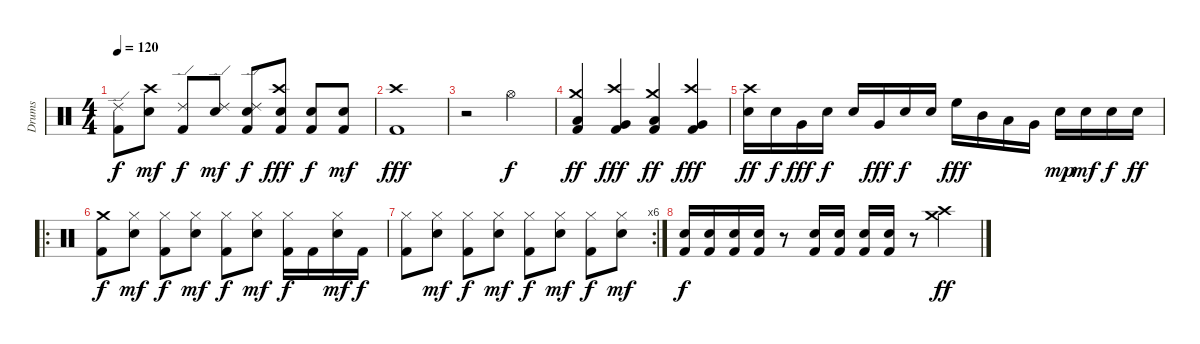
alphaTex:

\track ("Drums" "Drums") {instrument percussion}
\staff {score}
\articulation defaults
\ts (4 4)
\tempo 120
\clef neutral
\ks c
("Ride (edge) 2" "Kick (hit) 2").8{dy f} ("Crash high (hit)" "Snare (hit) 2").8{dy mf} ("Ride (edge) 2" "Kick (hit) 2").8{dy f} ("Ride (edge) 2" "Snare (hit) 2").8{dy mf} ("Ride (edge) 2" "Snare (hit) 2" "Kick (hit) 2").8{dy f} ("Crash high (hit)" "Snare (hit) 2" "Kick (hit) 2").8{dy fff} ("Snare (hit) 2" "Kick (hit) 2").8{dy f} ("Snare (hit) 2" "Kick (hit) 2").8{dy mf} |
("Crash high (hit)" "Kick (hit) 2").1{dy fff} |
r.2 "Hi-Hat (open)".2{dy f} |
("Crash medium (hit)" "Low Floor Tom (hit)" "Kick (hit) 2").4{dy ff balance 4} ("Crash high (hit)" "Very Low Tom (hit)" "Kick (hit) 2").4{dy fff balance 12} ("Crash medium (hit)" "Low Floor Tom (hit)" "Kick (hit) 2").4{dy ff balance 4} ("Crash high (hit)" "Very Low Tom (hit)" "Kick (hit) 2").4{dy fff balance 12} |
("Crash high (hit)" "Snare (hit) 2").16{dy ff balance 8} "Snare (hit) 2".16{dy f} "Very Low Tom (hit)".16{dy fff} "Snare (hit) 2".16{dy f} "Snare (hit) 2".16 "Very Low Tom (hit)".16{dy fff} "Snare (hit) 2".16{dy f} "Snare (hit) 2".16 "High Floor Tom (hit)".16{dy fff} "Mid Tom (hit)".16 "Low Tom (hit)".16 "Very Low Tom (hit)".16 "Snare (hit) 2".16{dy mp} "Snare (hit) 2".16{dy mf} "Snare (hit) 2".16{dy f} "Snare (hit) 2".16{dy ff} |
\ro
("Crash medium (hit)" "Kick (hit) 2").8{dy f} ("Hi-Hat (closed)" "Snare (hit) 2").8{dy mf} ("Hi-Hat (closed)" "Kick (hit) 2").8{dy f} ("Hi-Hat (closed)" "Snare (hit) 2").8{dy mf} ("Hi-Hat (closed)" "Kick (hit) 2").8{dy f} ("Hi-Hat (closed)" "Snare (hit) 2").8{dy mf} ("Hi-Hat (closed)" "Kick (hit) 2").16{dy f} "Kick (hit) 2".16 ("Hi-Hat (closed)" "Snare (hit) 2").16{dy mf} "Kick (hit) 2".16{dy f} |
\rc 6
("Hi-Hat (closed)" "Kick (hit) 2").8 ("Hi-Hat (closed)" "Snare (hit) 2").8{dy mf} ("Hi-Hat (closed)" "Kick (hit) 2").8{dy f} ("Hi-Hat (closed)" "Snare (hit) 2").8{dy mf} ("Hi-Hat (closed)" "Kick (hit) 2").8{dy f} ("Hi-Hat (closed)" "Snare (hit) 2").8{dy mf} ("Hi-Hat (closed)" "Kick (hit) 2").8{dy f} ("Hi-Hat (closed)" "Snare (hit) 2").8{dy mf} |
("Snare (hit) 2" "Kick (hit) 2").16{dy f} ("Snare (hit) 2" "Kick (hit) 2").16 ("Snare (hit) 2" "Kick (hit) 2").16 ("Snare (hit) 2" "Kick (hit) 2").16 r.8 ("Snare (hit) 2" "Kick (hit) 2").16 ("Snare (hit) 2" "Kick (hit) 2").16 ("Snare (hit) 2" "Kick (hit) 2").16 ("Snare (hit) 2" "Kick (hit) 2").16 r.8 ("Crash high (hit)" "Crash medium (hit)").4{dy ff}
